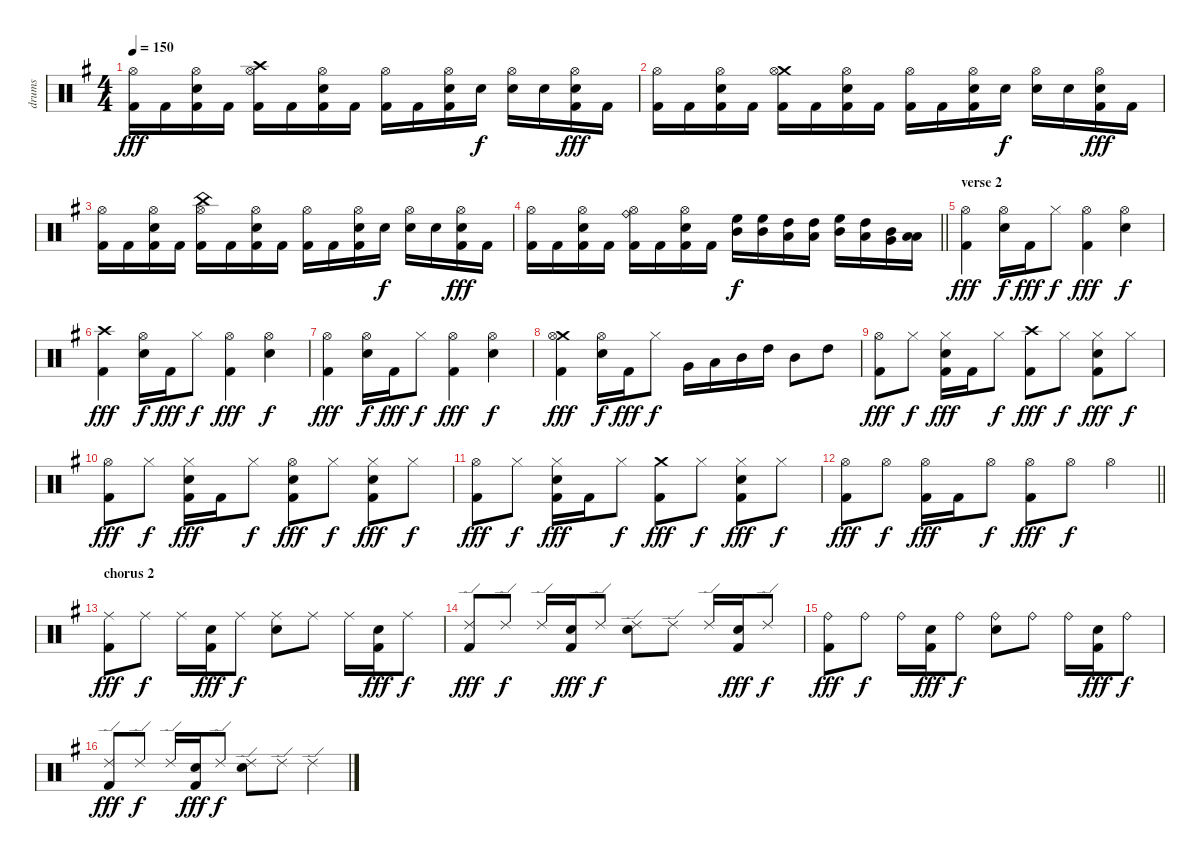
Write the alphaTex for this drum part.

\track ("drums" "drums") {instrument percussion}
\staff {score}
\articulation defaults
\ts (4 4)
\tempo 150
\clef neutral
\ks eminor
("Hi-Hat (open)" "Kick (hit) 2").16{dy fff} "Kick (hit) 2".16 ("Electric Snare (hit)" "Hi-Hat (open)" "Kick (hit) 2").16 "Kick (hit) 2".16 ("Crash high (hit)" "Hi-Hat (open)" "Kick (hit) 2").16 "Kick (hit) 2".16 ("Electric Snare (hit)" "Hi-Hat (open)" "Kick (hit) 2").16 "Kick (hit) 2".16 ("Hi-Hat (open)" "Kick (hit) 2").16 "Kick (hit) 2".16 ("Electric Snare (hit)" "Hi-Hat (open)" "Kick (hit) 2").16 "Electric Snare (hit)".16{dy f} ("Electric Snare (hit)" "Hi-Hat (open)").16 "Electric Snare (hit)".16 ("Electric Snare (hit)" "Hi-Hat (open)" "Kick (hit) 2").16{dy fff} "Kick (hit) 2".16 |
("Hi-Hat (open)" "Kick (hit) 2").16 "Kick (hit) 2".16 ("Electric Snare (hit)" "Hi-Hat (open)" "Kick (hit) 2").16 "Kick (hit) 2".16 ("Crash medium (hit)" "Hi-Hat (open)" "Kick (hit) 2").16 "Kick (hit) 2".16 ("Electric Snare (hit)" "Hi-Hat (open)" "Kick (hit) 2").16 "Kick (hit) 2".16 ("Hi-Hat (open)" "Kick (hit) 2").16 "Kick (hit) 2".16 ("Electric Snare (hit)" "Hi-Hat (open)" "Kick (hit) 2").16 "Electric Snare (hit)".16{dy f} ("Electric Snare (hit)" "Hi-Hat (open)").16 "Electric Snare (hit)".16 ("Electric Snare (hit)" "Hi-Hat (open)" "Kick (hit) 2").16{dy fff} "Kick (hit) 2".16 |
("Hi-Hat (open)" "Kick (hit) 2").16 "Kick (hit) 2".16 ("Electric Snare (hit)" "Hi-Hat (open)" "Kick (hit) 2").16 "Kick (hit) 2".16 ("China (hit)" "Hi-Hat (open)" "Kick (hit) 2").16 "Kick (hit) 2".16 ("Electric Snare (hit)" "Hi-Hat (open)" "Kick (hit) 2").16 "Kick (hit) 2".16 ("Hi-Hat (open)" "Kick (hit) 2").16 "Kick (hit) 2".16 ("Electric Snare (hit)" "Hi-Hat (open)" "Kick (hit) 2").16 "Electric Snare (hit)".16{dy f} ("Electric Snare (hit)" "Hi-Hat (open)").16 "Electric Snare (hit)".16 ("Electric Snare (hit)" "Hi-Hat (open)" "Kick (hit) 2").16{dy fff} "Kick (hit) 2".16 |
\barLineRight lightlight
("Hi-Hat (open)" "Kick (hit) 2").16 "Kick (hit) 2".16 ("Electric Snare (hit)" "Hi-Hat (open)" "Kick (hit) 2").16 "Kick (hit) 2".16 ("Ride (bell)" "Hi-Hat (open)" "Kick (hit) 2").16 "Kick (hit) 2".16 ("Electric Snare (hit)" "Hi-Hat (open)" "Kick (hit) 2").16 "Kick (hit) 2".16 ("High Floor Tom (hit)" "Mid Tom (hit)").16{dy f} ("High Floor Tom (hit)" "Mid Tom (hit)").16 ("High Tom (hit)" "Low Tom (hit)").16 ("High Tom (hit)" "Low Tom (hit)").16 ("High Floor Tom (hit)" "Mid Tom (hit)").16 ("High Tom (hit)" "Low Tom (hit)").16 ("Mid Tom (hit)" "Very Low Tom (hit)").16 ("Low Tom (hit)" "Low Floor Tom (hit)").16 |
\section ("" "verse 2")
("Hi-Hat (open)" "Kick (hit) 2").4{dy fff} ("Electric Snare (hit)" "Hi-Hat (open)").16{dy f} "Kick (hit) 2".16{dy fff} "Hi-Hat (closed)".8{dy f} ("Hi-Hat (open)" "Kick (hit) 2").4{dy fff} ("Electric Snare (hit)" "Hi-Hat (open)").4{dy f} |
("Crash high (hit)" "Kick (hit) 2").4{dy fff} ("Electric Snare (hit)" "Hi-Hat (open)").16{dy f} "Kick (hit) 2".16{dy fff} "Hi-Hat (closed)".8{dy f} ("Hi-Hat (open)" "Kick (hit) 2").4{dy fff} ("Electric Snare (hit)" "Hi-Hat (open)").4{dy f} |
("Hi-Hat (open)" "Kick (hit) 2").4{dy fff} ("Electric Snare (hit)" "Hi-Hat (open)").16{dy f} "Kick (hit) 2".16{dy fff} "Hi-Hat (closed)".8{dy f} ("Hi-Hat (open)" "Kick (hit) 2").4{dy fff} ("Electric Snare (hit)" "Hi-Hat (open)").4{dy f} |
("Crash medium (hit)" "Hi-Hat (open)" "Kick (hit) 2").4{dy fff} ("Electric Snare (hit)" "Hi-Hat (open)").16{dy f} "Kick (hit) 2".16{dy fff} "Hi-Hat (closed)".8{dy f} "Very Low Tom (hit)".16 "Low Tom (hit)".16 "Mid Tom (hit)".16 "High Tom (hit)".16 "Mid Tom (hit)".8 "High Tom (hit)".8 |
("Hi-Hat (open)" "Kick (hit) 2").8{dy fff} "Hi-Hat (closed)".8{dy f} ("Electric Snare (hit)" "Hi-Hat (closed)" "Kick (hit) 2").16{dy fff} "Kick (hit) 2".16 "Hi-Hat (closed)".8{dy f} ("Crash high (hit)" "Kick (hit) 2").8{dy fff} "Hi-Hat (closed)".8{dy f} ("Electric Snare (hit)" "Hi-Hat (closed)" "Kick (hit) 2").8{dy fff} "Hi-Hat (closed)".8{dy f} |
("Hi-Hat (open)" "Kick (hit) 2").8{dy fff} "Hi-Hat (closed)".8{dy f} ("Electric Snare (hit)" "Hi-Hat (closed)" "Kick (hit) 2").16{dy fff} "Kick (hit) 2".16 "Hi-Hat (closed)".8{dy f} ("Electric Snare (hit)" "Hi-Hat (open)" "Kick (hit) 2").8{dy fff} "Hi-Hat (closed)".8{dy f} ("Electric Snare (hit)" "Hi-Hat (closed)" "Kick (hit) 2").8{dy fff} "Hi-Hat (closed)".8{dy f} |
("Hi-Hat (open)" "Kick (hit) 2").8{dy fff} "Hi-Hat (closed)".8{dy f} ("Electric Snare (hit)" "Hi-Hat (closed)" "Kick (hit) 2").16{dy fff} "Kick (hit) 2".16 "Hi-Hat (closed)".8{dy f} ("Crash medium (hit)" "Kick (hit) 2").8{dy fff} "Hi-Hat (closed)".8{dy f} ("Electric Snare (hit)" "Hi-Hat (closed)" "Kick (hit) 2").8{dy fff} "Hi-Hat (closed)".8{dy f} |
\barLineRight lightlight
("Hi-Hat (open)" "Kick (hit) 2").8{dy fff} "Hi-Hat (open)".8{dy f} ("Hi-Hat (open)" "Kick (hit) 2").16{dy fff} "Kick (hit) 2".16 "Hi-Hat (open)".8{dy f} ("Hi-Hat (open)" "Kick (hit) 2").8{dy fff} "Hi-Hat (open)".8{dy f} "Hi-Hat (open)".4 |
\section ("" "chorus 2")
("Ride (middle)" "Kick (hit) 2").8{dy fff} "Ride (middle)".8{dy f} "Ride (middle)".16 ("Electric Snare (hit)" "Kick (hit) 2").16{dy fff} "Ride (middle)".8{dy f} ("Ride (middle)" "Electric Snare (hit)").8 "Ride (middle)".8 "Ride (middle)".16 ("Electric Snare (hit)" "Kick (hit) 2").16{dy fff} "Ride (middle)".8{dy f} |
("Ride (edge) 2" "Kick (hit) 2").8{dy fff} "Ride (edge) 2".8{dy f} "Ride (edge) 2".16 ("Electric Snare (hit)" "Kick (hit) 2").16{dy fff} "Ride (edge) 2".8{dy f} ("Ride (edge) 2" "Electric Snare (hit)").8 "Ride (edge) 2".8 "Ride (edge) 2".16 ("Electric Snare (hit)" "Kick (hit) 2").16{dy fff} "Ride (edge) 2".8{dy f} |
("Ride (bell)" "Kick (hit) 2").8{dy fff} "Ride (bell)".8{dy f} "Ride (bell)".16 ("Electric Snare (hit)" "Kick (hit) 2").16{dy fff} "Ride (bell)".8{dy f} ("Ride (bell)" "Electric Snare (hit)").8 "Ride (bell)".8 "Ride (bell)".16 ("Electric Snare (hit)" "Kick (hit) 2").16{dy fff} "Ride (bell)".8{dy f} |
("Ride (edge) 2" "Kick (hit) 2").8{dy fff} "Ride (edge) 2".8{dy f} "Ride (edge) 2".16 ("Electric Snare (hit)" "Kick (hit) 2").16{dy fff} "Ride (edge) 2".8{dy f} ("Ride (edge) 2" "Electric Snare (hit)").8 "Ride (edge) 2".8 "Ride (edge) 2".4
